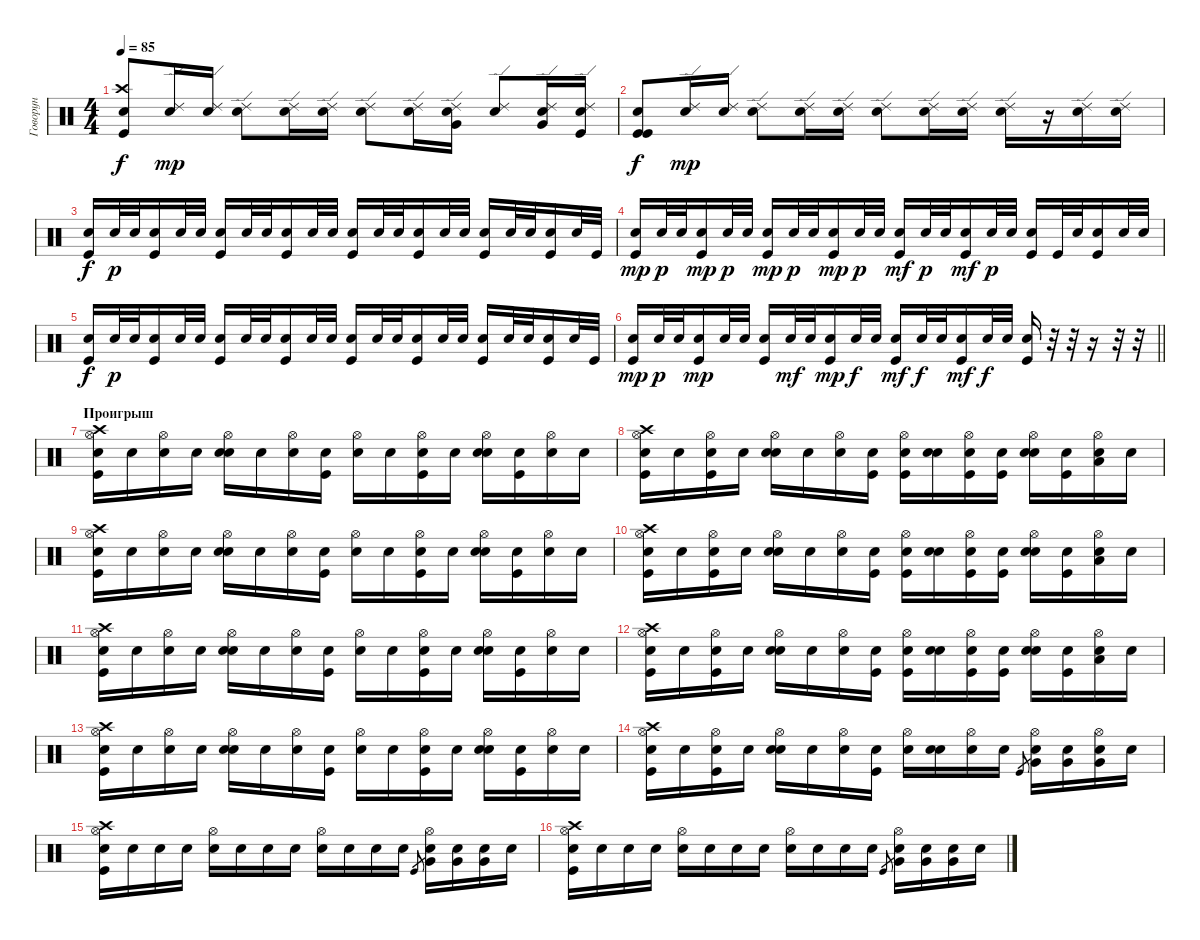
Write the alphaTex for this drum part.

\track ("Говорун" "Говорун") {instrument percussion}
\staff {score}
\articulation defaults
\ts (4 4)
\tempo 85
\clef neutral
\ks c
("Kick (hit)" "Crash high (hit)" "Snare (hit)"{x}).8{dy f} ("Ride (edge) 2" "Snare (hit)"{x}).16{dy mp} ("Ride (edge) 2" "Snare (hit)"{x}).16 ("Ride (edge) 2" "Snare (hit)"{x}).8 ("Ride (edge) 2" "Snare (hit)"{x}).16 ("Ride (edge) 2" "Snare (hit)"{x}).16 ("Ride (edge) 2" "Snare (hit)"{x}).8 ("Ride (edge) 2" "Snare (hit)"{x}).16 ("Very Low Tom (hit)" "Ride (edge) 2" "Snare (hit)"{x}).16 ("Ride (edge) 2" "Snare (hit)"{x}).8 ("Very Low Tom (hit)" "Ride (edge) 2" "Snare (hit)"{x}).16 ("Ride (edge) 2" "Kick (hit)" "Snare (hit)"{x}).16 |
("Kick (hit)" "Kick (hit)" "Snare (hit)"{x}).8{dy f} ("Ride (edge) 2" "Snare (hit)"{x}).16{dy mp} ("Ride (edge) 2" "Snare (hit)"{x}).16 ("Ride (edge) 2" "Snare (hit)"{x}).8 ("Ride (edge) 2" "Snare (hit)"{x}).16 ("Ride (edge) 2" "Snare (hit)"{x}).16 ("Ride (edge) 2" "Snare (hit)"{x}).8 ("Ride (edge) 2" "Snare (hit)"{x}).16 ("Ride (edge) 2" "Snare (hit)"{x}).16 ("Ride (edge) 2" "Snare (hit)"{x}).16 r.16 ("Ride (edge) 2" "Snare (hit)"{x}).16 ("Ride (edge) 2" "Snare (hit)"{x}).16 |
("Snare (hit) 2" "Kick (hit)").16{dy f} "Snare (hit) 2".32{dy p} "Snare (hit) 2".32 ("Snare (hit) 2" "Kick (hit)").16 "Snare (hit) 2".32 "Snare (hit) 2".32 ("Snare (hit) 2" "Kick (hit)").16 "Snare (hit) 2".32 "Snare (hit) 2".32 ("Snare (hit) 2" "Kick (hit)").16 "Snare (hit) 2".32 "Snare (hit) 2".32 ("Snare (hit) 2" "Kick (hit)").16 "Snare (hit) 2".32 "Snare (hit) 2".32 ("Snare (hit) 2" "Kick (hit)").16 "Snare (hit) 2".32 "Snare (hit) 2".32 ("Snare (hit) 2" "Kick (hit)").16 "Snare (hit) 2".32 "Snare (hit) 2".32 ("Snare (hit) 2" "Kick (hit)").16 "Snare (hit) 2".32 "Kick (hit)".32 |
("Snare (hit) 2" "Kick (hit)").16{dy mp} "Snare (hit) 2".32{dy p} "Snare (hit) 2".32 ("Snare (hit) 2" "Kick (hit)").16{dy mp} "Snare (hit) 2".32{dy p} "Snare (hit) 2".32 ("Snare (hit) 2" "Kick (hit)").16{dy mp} "Snare (hit) 2".32{dy p} "Snare (hit) 2".32 ("Snare (hit) 2" "Kick (hit)").16{dy mp} "Snare (hit) 2".32{dy p} "Snare (hit) 2".32 ("Snare (hit) 2" "Kick (hit)").16{dy mf} "Snare (hit) 2".32{dy p} "Snare (hit) 2".32 ("Snare (hit) 2" "Kick (hit)").16{dy mf} "Snare (hit) 2".32{dy p} "Snare (hit) 2".32 ("Snare (hit) 2" "Kick (hit)").16 "Kick (hit)".32 "Snare (hit) 2".32 ("Snare (hit) 2" "Kick (hit)").16 "Snare (hit) 2".32 "Snare (hit) 2".32 |
("Snare (hit) 2" "Kick (hit)").16{dy f} "Snare (hit) 2".32{dy p} "Snare (hit) 2".32 ("Snare (hit) 2" "Kick (hit)").16 "Snare (hit) 2".32 "Snare (hit) 2".32 ("Snare (hit) 2" "Kick (hit)").16 "Snare (hit) 2".32 "Snare (hit) 2".32 ("Snare (hit) 2" "Kick (hit)").16 "Snare (hit) 2".32 "Snare (hit) 2".32 ("Snare (hit) 2" "Kick (hit)").16 "Snare (hit) 2".32 "Snare (hit) 2".32 ("Snare (hit) 2" "Kick (hit)").16 "Snare (hit) 2".32 "Snare (hit) 2".32 ("Snare (hit) 2" "Kick (hit)").16 "Snare (hit) 2".32 "Snare (hit) 2".32 ("Snare (hit) 2" "Kick (hit)").16 "Snare (hit) 2".32 "Kick (hit)".32 |
\barLineRight lightlight
("Snare (hit) 2" "Kick (hit)").16{dy mp} "Snare (hit) 2".32{dy p} "Snare (hit) 2".32 ("Snare (hit) 2" "Kick (hit)").16{dy mp} "Snare (hit) 2".32 "Snare (hit) 2".32 ("Snare (hit) 2" "Kick (hit)").16 "Snare (hit) 2".32{dy mf} "Snare (hit) 2".32 ("Snare (hit) 2" "Kick (hit)").16{dy mp} "Snare (hit) 2".32{dy f} "Snare (hit) 2".32 ("Snare (hit) 2" "Kick (hit)").16{dy mf} "Snare (hit) 2".32{dy f} "Snare (hit) 2".32 ("Snare (hit) 2" "Kick (hit)").16{dy mf} "Snare (hit) 2".32{dy f} "Snare (hit) 2".32 ("Snare (hit) 2" "Kick (hit)").16 r.32 r.32 r.16 r.32 r.32 |
\section ("" "Проигрыш")
("Kick (hit)" "Hi-Hat (open)" "Crash high (hit)" "Snare (hit)"{x}).16 "Snare (hit)"{x}.16 ("Hi-Hat (open)" "Snare (hit)"{x}).16 "Snare (hit)"{x}.16 ("Snare (hit) 2" "Hi-Hat (open)" "Snare (hit)"{x}).16 "Snare (hit)"{x}.16 ("Hi-Hat (open)" "Snare (hit)"{x}).16 ("Kick (hit)" "Snare (hit)"{x}).16 ("Hi-Hat (open)" "Snare (hit)"{x}).16 "Snare (hit)"{x}.16 ("Kick (hit)" "Hi-Hat (open)" "Snare (hit)"{x}).16 "Snare (hit)"{x}.16 ("Snare (hit) 2" "Hi-Hat (open)" "Snare (hit)"{x}).16 ("Kick (hit)" "Snare (hit)"{x}).16 ("Hi-Hat (open)" "Snare (hit)"{x}).16 "Snare (hit)"{x}.16 |
("Kick (hit)" "Hi-Hat (open)" "Crash high (hit)" "Snare (hit)"{x}).16 "Snare (hit)"{x}.16 ("Kick (hit)" "Hi-Hat (open)" "Snare (hit)"{x}).16 "Snare (hit)"{x}.16 ("Snare (hit) 2" "Hi-Hat (open)" "Snare (hit)"{x}).16 "Snare (hit)"{x}.16 ("Hi-Hat (open)" "Snare (hit)"{x}).16 ("Kick (hit)" "Snare (hit)"{x}).16 ("Kick (hit)" "Hi-Hat (open)" "Snare (hit)"{x}).16 ("Snare (hit) 2" "Snare (hit)"{x}).16 ("Kick (hit)" "Hi-Hat (open)" "Snare (hit)"{x}).16 ("Kick (hit)" "Snare (hit)"{x}).16 ("Snare (hit) 2" "Hi-Hat (open)" "Snare (hit)"{x}).16 ("Kick (hit)" "Snare (hit)"{x}).16 ("Low Tom (hit)" "Hi-Hat (open)" "Snare (hit)"{x}).16 "Snare (hit)"{x}.16 |
("Kick (hit)" "Hi-Hat (open)" "Crash high (hit)" "Snare (hit)"{x}).16 "Snare (hit)"{x}.16 ("Hi-Hat (open)" "Snare (hit)"{x}).16 "Snare (hit)"{x}.16 ("Snare (hit) 2" "Hi-Hat (open)" "Snare (hit)"{x}).16 "Snare (hit)"{x}.16 ("Hi-Hat (open)" "Snare (hit)"{x}).16 ("Kick (hit)" "Snare (hit)"{x}).16 ("Hi-Hat (open)" "Snare (hit)"{x}).16 "Snare (hit)"{x}.16 ("Kick (hit)" "Hi-Hat (open)" "Snare (hit)"{x}).16 "Snare (hit)"{x}.16 ("Snare (hit) 2" "Hi-Hat (open)" "Snare (hit)"{x}).16 ("Kick (hit)" "Snare (hit)"{x}).16 ("Hi-Hat (open)" "Snare (hit)"{x}).16 "Snare (hit)"{x}.16 |
("Kick (hit)" "Hi-Hat (open)" "Crash high (hit)" "Snare (hit)"{x}).16 "Snare (hit)"{x}.16 ("Kick (hit)" "Hi-Hat (open)" "Snare (hit)"{x}).16 "Snare (hit)"{x}.16 ("Snare (hit) 2" "Hi-Hat (open)" "Snare (hit)"{x}).16 "Snare (hit)"{x}.16 ("Hi-Hat (open)" "Snare (hit)"{x}).16 ("Kick (hit)" "Snare (hit)"{x}).16 ("Kick (hit)" "Hi-Hat (open)" "Snare (hit)"{x}).16 ("Snare (hit) 2" "Snare (hit)"{x}).16 ("Kick (hit)" "Hi-Hat (open)" "Snare (hit)"{x}).16 ("Kick (hit)" "Snare (hit)"{x}).16 ("Snare (hit) 2" "Hi-Hat (open)" "Snare (hit)"{x}).16 ("Kick (hit)" "Snare (hit)"{x}).16 ("Low Tom (hit)" "Hi-Hat (open)" "Snare (hit)"{x}).16 "Snare (hit)"{x}.16 |
("Kick (hit)" "Hi-Hat (open)" "Crash high (hit)" "Snare (hit)"{x}).16 "Snare (hit)"{x}.16 ("Hi-Hat (open)" "Snare (hit)"{x}).16 "Snare (hit)"{x}.16 ("Snare (hit) 2" "Hi-Hat (open)" "Snare (hit)"{x}).16 "Snare (hit)"{x}.16 ("Hi-Hat (open)" "Snare (hit)"{x}).16 ("Kick (hit)" "Snare (hit)"{x}).16 ("Hi-Hat (open)" "Snare (hit)"{x}).16 "Snare (hit)"{x}.16 ("Kick (hit)" "Hi-Hat (open)" "Snare (hit)"{x}).16 "Snare (hit)"{x}.16 ("Snare (hit) 2" "Hi-Hat (open)" "Snare (hit)"{x}).16 ("Kick (hit)" "Snare (hit)"{x}).16 ("Hi-Hat (open)" "Snare (hit)"{x}).16 "Snare (hit)"{x}.16 |
("Kick (hit)" "Hi-Hat (open)" "Crash high (hit)" "Snare (hit)"{x}).16 "Snare (hit)"{x}.16 ("Kick (hit)" "Hi-Hat (open)" "Snare (hit)"{x}).16 "Snare (hit)"{x}.16 ("Snare (hit) 2" "Hi-Hat (open)" "Snare (hit)"{x}).16 "Snare (hit)"{x}.16 ("Hi-Hat (open)" "Snare (hit)"{x}).16 ("Kick (hit)" "Snare (hit)"{x}).16 ("Kick (hit)" "Hi-Hat (open)" "Snare (hit)"{x}).16 ("Snare (hit) 2" "Snare (hit)"{x}).16 ("Kick (hit)" "Hi-Hat (open)" "Snare (hit)"{x}).16 ("Kick (hit)" "Snare (hit)"{x}).16 ("Snare (hit) 2" "Hi-Hat (open)" "Snare (hit)"{x}).16 ("Kick (hit)" "Snare (hit)"{x}).16 ("Low Tom (hit)" "Hi-Hat (open)" "Snare (hit)"{x}).16 "Snare (hit)"{x}.16 |
("Kick (hit)" "Hi-Hat (open)" "Crash high (hit)" "Snare (hit)"{x}).16 "Snare (hit)"{x}.16 ("Hi-Hat (open)" "Snare (hit)"{x}).16 "Snare (hit)"{x}.16 ("Snare (hit) 2" "Hi-Hat (open)" "Snare (hit)"{x}).16 "Snare (hit)"{x}.16 ("Hi-Hat (open)" "Snare (hit)"{x}).16 ("Kick (hit)" "Snare (hit)"{x}).16 ("Hi-Hat (open)" "Snare (hit)"{x}).16 "Snare (hit)"{x}.16 ("Kick (hit)" "Hi-Hat (open)" "Snare (hit)"{x}).16 "Snare (hit)"{x}.16 ("Snare (hit) 2" "Hi-Hat (open)" "Snare (hit)"{x}).16 ("Kick (hit)" "Snare (hit)"{x}).16 ("Hi-Hat (open)" "Snare (hit)"{x}).16 "Snare (hit)"{x}.16 |
("Kick (hit)" "Hi-Hat (open)" "Crash high (hit)" "Snare (hit)"{x}).16 "Snare (hit)"{x}.16 ("Kick (hit)" "Hi-Hat (open)" "Snare (hit)"{x}).16 "Snare (hit)"{x}.16 ("Snare (hit) 2" "Hi-Hat (open)" "Snare (hit)"{x}).16 "Snare (hit)"{x}.16 ("Hi-Hat (open)" "Snare (hit)"{x}).16 ("Kick (hit)" "Snare (hit)"{x}).16 ("Hi-Hat (open)" "Snare (hit)"{x}).16 ("Snare (hit) 2" "Snare (hit)"{x}).16 ("Hi-Hat (open)" "Snare (hit)"{x}).16 "Snare (hit)"{x}.16 "Kick (hit)".8{gr} ("Very Low Tom (hit)" "Hi-Hat (open)" "Snare (hit)"{x}).16 ("Very Low Tom (hit)" "Snare (hit)"{x}).16 ("Very Low Tom (hit)" "Hi-Hat (open)" "Snare (hit)"{x}).16 "Snare (hit)"{x}.16 |
("Kick (hit)" "Hi-Hat (open)" "Crash high (hit)" "Snare (hit)"{x}).16 "Snare (hit)"{x}.16 "Snare (hit)"{x}.16 "Snare (hit)"{x}.16 ("Hi-Hat (open)" "Snare (hit)"{x}).16 "Snare (hit)"{x}.16 "Snare (hit)"{x}.16 "Snare (hit)"{x}.16 ("Hi-Hat (open)" "Snare (hit)"{x}).16 "Snare (hit)"{x}.16 "Snare (hit)"{x}.16 "Snare (hit)"{x}.16 "Kick (hit)".8{gr} ("Very Low Tom (hit)" "Hi-Hat (open)" "Snare (hit)"{x}).16 ("Very Low Tom (hit)" "Snare (hit)"{x}).16 ("Very Low Tom (hit)" "Snare (hit)"{x}).16 "Snare (hit)"{x}.16 |
("Kick (hit)" "Hi-Hat (open)" "Crash high (hit)" "Snare (hit)"{x}).16 "Snare (hit)"{x}.16 "Snare (hit)"{x}.16 "Snare (hit)"{x}.16 ("Hi-Hat (open)" "Snare (hit)"{x}).16 "Snare (hit)"{x}.16 "Snare (hit)"{x}.16 "Snare (hit)"{x}.16 ("Hi-Hat (open)" "Snare (hit)"{x}).16 "Snare (hit)"{x}.16 "Snare (hit)"{x}.16 "Snare (hit)"{x}.16 "Kick (hit)".8{gr} ("Very Low Tom (hit)" "Hi-Hat (open)" "Snare (hit)"{x}).16 ("Very Low Tom (hit)" "Snare (hit)"{x}).16 ("Very Low Tom (hit)" "Snare (hit)"{x}).16 "Snare (hit)"{x}.16
